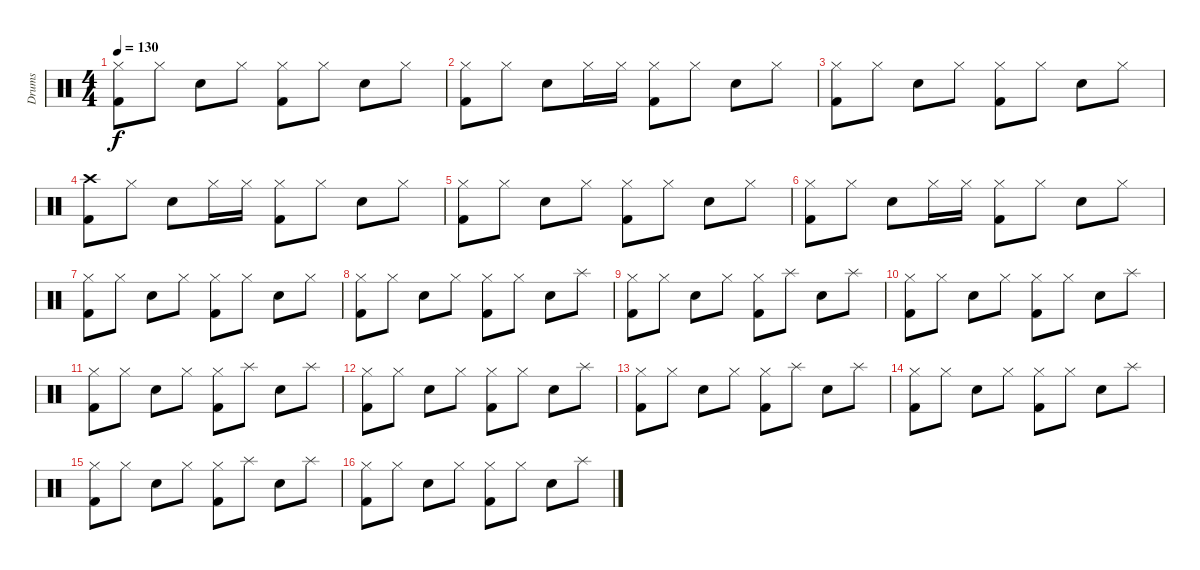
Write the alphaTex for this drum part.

\track ("Drums" "Drums") {instrument percussion}
\staff {score}
\articulation defaults
\ts (4 4)
\tempo 130
\clef neutral
\ks c
("Hi-Hat (closed)" "Kick (hit) 2").8{dy f} "Hi-Hat (closed)".8 "Snare (hit) 2".8 "Hi-Hat (closed)".8 ("Hi-Hat (closed)" "Kick (hit) 2").8 "Hi-Hat (closed)".8 "Snare (hit) 2".8 "Hi-Hat (closed)".8 |
("Hi-Hat (closed)" "Kick (hit) 2").8 "Hi-Hat (closed)".8 "Snare (hit) 2".8 "Hi-Hat (closed)".16 "Hi-Hat (closed)".16 ("Hi-Hat (closed)" "Kick (hit) 2").8 "Hi-Hat (closed)".8 "Snare (hit) 2".8 "Hi-Hat (closed)".8 |
("Hi-Hat (closed)" "Kick (hit) 2").8 "Hi-Hat (closed)".8 "Snare (hit) 2".8 "Hi-Hat (closed)".8 ("Hi-Hat (closed)" "Kick (hit) 2").8 "Hi-Hat (closed)".8 "Snare (hit) 2".8 "Hi-Hat (closed)".8 |
("Crash high (hit)" "Kick (hit) 2").8 "Hi-Hat (closed)".8 "Snare (hit) 2".8 "Hi-Hat (closed)".16 "Hi-Hat (closed)".16 ("Hi-Hat (closed)" "Kick (hit) 2").8 "Hi-Hat (closed)".8 "Snare (hit) 2".8 "Hi-Hat (closed)".8 |
("Hi-Hat (closed)" "Kick (hit) 2").8 "Hi-Hat (closed)".8 "Snare (hit) 2".8 "Hi-Hat (closed)".8 ("Hi-Hat (closed)" "Kick (hit) 2").8 "Hi-Hat (closed)".8 "Snare (hit) 2".8 "Hi-Hat (closed)".8 |
("Hi-Hat (closed)" "Kick (hit) 2").8 "Hi-Hat (closed)".8 "Snare (hit) 2".8 "Hi-Hat (closed)".16 "Hi-Hat (closed)".16 ("Hi-Hat (closed)" "Kick (hit) 2").8 "Hi-Hat (closed)".8 "Snare (hit) 2".8 "Hi-Hat (closed)".8 |
("Hi-Hat (closed)" "Kick (hit) 2").8 "Hi-Hat (closed)".8 "Snare (hit) 2".8 "Hi-Hat (closed)".8 ("Hi-Hat (closed)" "Kick (hit) 2").8 "Hi-Hat (closed)".8 "Snare (hit) 2".8 "Hi-Hat (closed)".8 |
("Hi-Hat (closed)" "Kick (hit) 2").8 "Hi-Hat (closed)".8 "Snare (hit) 2".8 "Hi-Hat (closed)".8 ("Hi-Hat (closed)" "Kick (hit) 2").8 "Hi-Hat (closed)".8 "Snare (hit) 2".8 "Splash (hit)".8 |
("Hi-Hat (closed)" "Kick (hit) 2").8 "Hi-Hat (closed)".8 "Snare (hit) 2".8 "Hi-Hat (closed)".8 ("Hi-Hat (closed)" "Kick (hit) 2").8 "Splash (hit)".8 "Snare (hit) 2".8 "Splash (hit)".8 |
("Hi-Hat (closed)" "Kick (hit) 2").8 "Hi-Hat (closed)".8 "Snare (hit) 2".8 "Hi-Hat (closed)".8 ("Hi-Hat (closed)" "Kick (hit) 2").8 "Hi-Hat (closed)".8 "Snare (hit) 2".8 "Splash (hit)".8 |
("Hi-Hat (closed)" "Kick (hit) 2").8 "Hi-Hat (closed)".8 "Snare (hit) 2".8 "Hi-Hat (closed)".8 ("Hi-Hat (closed)" "Kick (hit) 2").8 "Splash (hit)".8 "Snare (hit) 2".8 "Splash (hit)".8 |
("Hi-Hat (closed)" "Kick (hit) 2").8 "Hi-Hat (closed)".8 "Snare (hit) 2".8 "Hi-Hat (closed)".8 ("Hi-Hat (closed)" "Kick (hit) 2").8 "Hi-Hat (closed)".8 "Snare (hit) 2".8 "Splash (hit)".8 |
("Hi-Hat (closed)" "Kick (hit) 2").8 "Hi-Hat (closed)".8 "Snare (hit) 2".8 "Hi-Hat (closed)".8 ("Hi-Hat (closed)" "Kick (hit) 2").8 "Splash (hit)".8 "Snare (hit) 2".8 "Splash (hit)".8 |
("Hi-Hat (closed)" "Kick (hit) 2").8 "Hi-Hat (closed)".8 "Snare (hit) 2".8 "Hi-Hat (closed)".8 ("Hi-Hat (closed)" "Kick (hit) 2").8 "Hi-Hat (closed)".8 "Snare (hit) 2".8 "Splash (hit)".8 |
("Hi-Hat (closed)" "Kick (hit) 2").8 "Hi-Hat (closed)".8 "Snare (hit) 2".8 "Hi-Hat (closed)".8 ("Hi-Hat (closed)" "Kick (hit) 2").8 "Splash (hit)".8 "Snare (hit) 2".8 "Splash (hit)".8 |
("Hi-Hat (closed)" "Kick (hit) 2").8 "Hi-Hat (closed)".8 "Snare (hit) 2".8 "Hi-Hat (closed)".8 ("Hi-Hat (closed)" "Kick (hit) 2").8 "Hi-Hat (closed)".8 "Snare (hit) 2".8 "Splash (hit)".8
